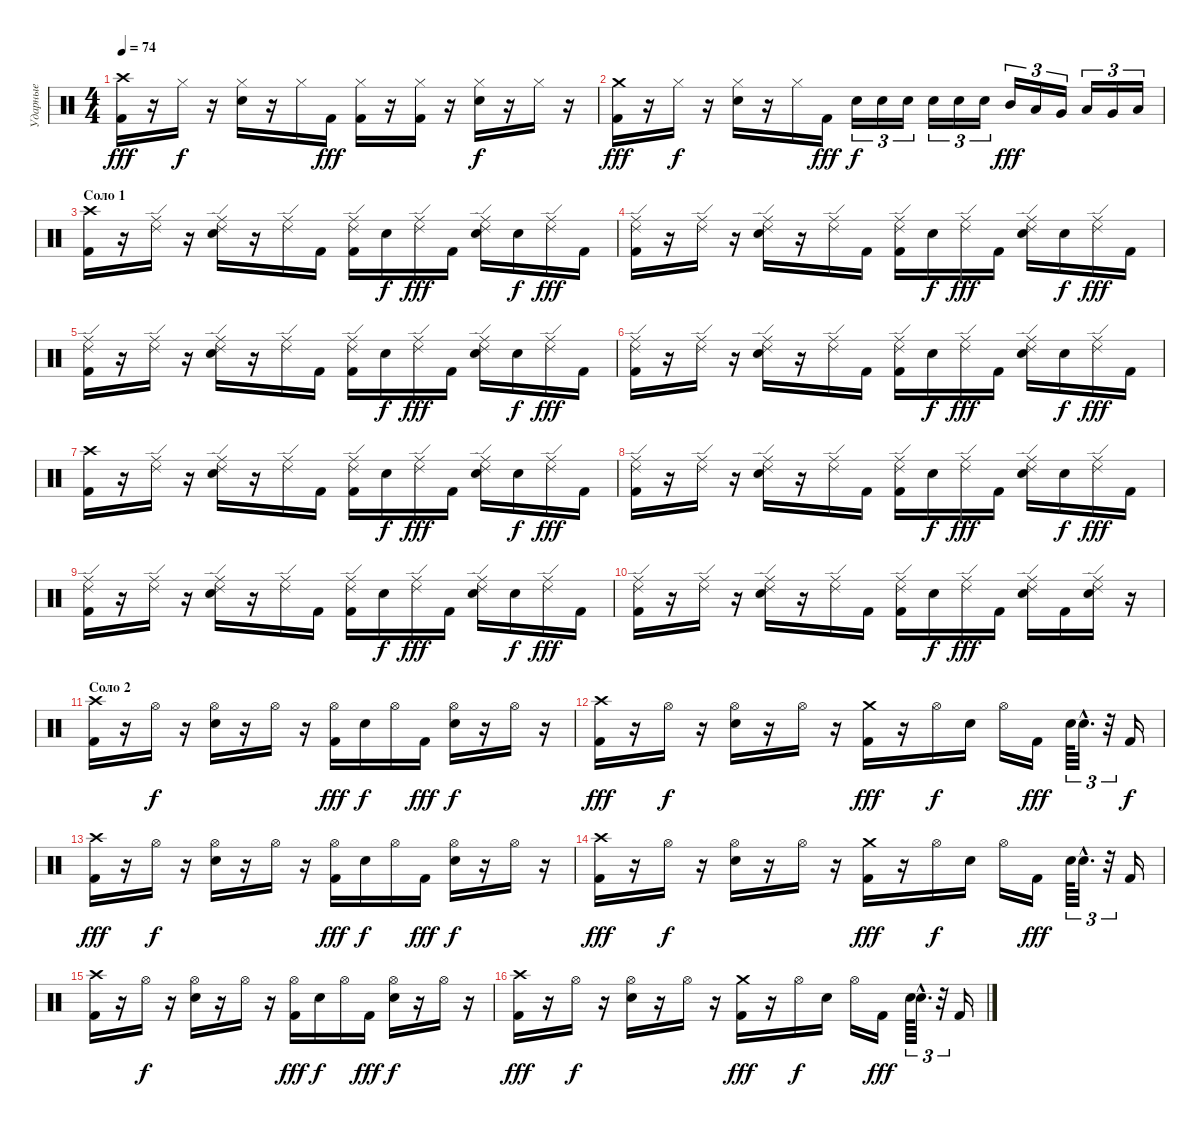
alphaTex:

\track ("Ударные" "Ударные") {instrument percussion}
\staff {score}
\articulation defaults
\ts (4 4)
\tempo 74
\clef neutral
\ks c
("Crash high (hit)" "Kick (hit) 2").16{dy fff} r.16 "Hi-Hat (closed)".16{dy f} r.16 ("Hi-Hat (closed)" "Electric Snare (hit)").16 r.16 "Hi-Hat (closed)".16 "Kick (hit) 2".16{dy fff} ("Hi-Hat (closed)" "Kick (hit) 2").16 r.16 ("Hi-Hat (closed)" "Kick (hit) 2").16 r.16 ("Hi-Hat (closed)" "Electric Snare (hit)").16{dy f} r.16 "Hi-Hat (closed)".16 r.16 |
("Crash medium (hit)" "Kick (hit) 2").16{dy fff} r.16 "Hi-Hat (closed)".16{dy f} r.16 ("Hi-Hat (closed)" "Electric Snare (hit)").16 r.16 "Hi-Hat (closed)".16 "Kick (hit) 2".16{dy fff} "Electric Snare (hit)".16{tu (3 2) dy f} "Electric Snare (hit)".16{tu (3 2)} "Electric Snare (hit)".16{tu (3 2)} "Electric Snare (hit)".16{tu (3 2)} "Electric Snare (hit)".16{tu (3 2)} "Electric Snare (hit)".16{tu (3 2)} "Mid Tom (hit)".16{tu (3 2) dy fff} "Low Tom (hit)".16{tu (3 2)} "Very Low Tom (hit)".16{tu (3 2)} "Low Tom (hit)".16{tu (3 2)} "Very Low Tom (hit)".16{tu (3 2)} "Low Floor Tom (hit)".16{tu (3 2)} |
\section ("" "Соло 1")
("Crash high (hit)" "Kick (hit) 2").16 r.16 ("Ride (edge) 2" "Ride (middle)").16 r.16 ("Ride (edge) 2" "Ride (middle)" "Electric Snare (hit)").16 r.16 ("Ride (edge) 2" "Ride (middle)").16 "Kick (hit) 2".16 ("Ride (edge) 2" "Ride (middle)" "Kick (hit) 2").16 "Electric Snare (hit)".16{dy f} ("Ride (edge) 2" "Ride (middle)").16{dy fff} "Kick (hit) 2".16 ("Ride (edge) 2" "Ride (middle)" "Electric Snare (hit)").16 "Electric Snare (hit)".16{dy f} ("Ride (edge) 2" "Ride (middle)").16{dy fff} "Kick (hit) 2".16 |
("Ride (edge) 2" "Ride (middle)" "Kick (hit) 2").16 r.16 ("Ride (edge) 2" "Ride (middle)").16 r.16 ("Ride (edge) 2" "Ride (middle)" "Electric Snare (hit)").16 r.16 ("Ride (edge) 2" "Ride (middle)").16 "Kick (hit) 2".16 ("Ride (edge) 2" "Ride (middle)" "Kick (hit) 2").16 "Electric Snare (hit)".16{dy f} ("Ride (edge) 2" "Ride (middle)").16{dy fff} "Kick (hit) 2".16 ("Ride (edge) 2" "Ride (middle)" "Electric Snare (hit)").16 "Electric Snare (hit)".16{dy f} ("Ride (edge) 2" "Ride (middle)").16{dy fff} "Kick (hit) 2".16 |
("Ride (edge) 2" "Ride (middle)" "Kick (hit) 2").16 r.16 ("Ride (edge) 2" "Ride (middle)").16 r.16 ("Ride (edge) 2" "Ride (middle)" "Electric Snare (hit)").16 r.16 ("Ride (edge) 2" "Ride (middle)").16 "Kick (hit) 2".16 ("Ride (edge) 2" "Ride (middle)" "Kick (hit) 2").16 "Electric Snare (hit)".16{dy f} ("Ride (edge) 2" "Ride (middle)").16{dy fff} "Kick (hit) 2".16 ("Ride (edge) 2" "Ride (middle)" "Electric Snare (hit)").16 "Electric Snare (hit)".16{dy f} ("Ride (edge) 2" "Ride (middle)").16{dy fff} "Kick (hit) 2".16 |
("Ride (edge) 2" "Ride (middle)" "Kick (hit) 2").16 r.16 ("Ride (edge) 2" "Ride (middle)").16 r.16 ("Ride (edge) 2" "Ride (middle)" "Electric Snare (hit)").16 r.16 ("Ride (edge) 2" "Ride (middle)").16 "Kick (hit) 2".16 ("Ride (edge) 2" "Ride (middle)" "Kick (hit) 2").16 "Electric Snare (hit)".16{dy f} ("Ride (edge) 2" "Ride (middle)").16{dy fff} "Kick (hit) 2".16 ("Ride (edge) 2" "Ride (middle)" "Electric Snare (hit)").16 "Electric Snare (hit)".16{dy f} ("Ride (edge) 2" "Ride (middle)").16{dy fff} "Kick (hit) 2".16 |
("Crash high (hit)" "Kick (hit) 2").16 r.16 ("Ride (edge) 2" "Ride (middle)").16 r.16 ("Ride (edge) 2" "Ride (middle)" "Electric Snare (hit)").16 r.16 ("Ride (edge) 2" "Ride (middle)").16 "Kick (hit) 2".16 ("Ride (edge) 2" "Ride (middle)" "Kick (hit) 2").16 "Electric Snare (hit)".16{dy f} ("Ride (edge) 2" "Ride (middle)").16{dy fff} "Kick (hit) 2".16 ("Ride (edge) 2" "Ride (middle)" "Electric Snare (hit)").16 "Electric Snare (hit)".16{dy f} ("Ride (edge) 2" "Ride (middle)").16{dy fff} "Kick (hit) 2".16 |
("Ride (edge) 2" "Ride (middle)" "Kick (hit) 2").16 r.16 ("Ride (edge) 2" "Ride (middle)").16 r.16 ("Ride (edge) 2" "Ride (middle)" "Electric Snare (hit)").16 r.16 ("Ride (edge) 2" "Ride (middle)").16 "Kick (hit) 2".16 ("Ride (edge) 2" "Ride (middle)" "Kick (hit) 2").16 "Electric Snare (hit)".16{dy f} ("Ride (edge) 2" "Ride (middle)").16{dy fff} "Kick (hit) 2".16 ("Ride (edge) 2" "Ride (middle)" "Electric Snare (hit)").16 "Electric Snare (hit)".16{dy f} ("Ride (edge) 2" "Ride (middle)").16{dy fff} "Kick (hit) 2".16 |
("Ride (edge) 2" "Ride (middle)" "Kick (hit) 2").16 r.16 ("Ride (edge) 2" "Ride (middle)").16 r.16 ("Ride (edge) 2" "Ride (middle)" "Electric Snare (hit)").16 r.16 ("Ride (edge) 2" "Ride (middle)").16 "Kick (hit) 2".16 ("Ride (edge) 2" "Ride (middle)" "Kick (hit) 2").16 "Electric Snare (hit)".16{dy f} ("Ride (edge) 2" "Ride (middle)").16{dy fff} "Kick (hit) 2".16 ("Ride (edge) 2" "Ride (middle)" "Electric Snare (hit)").16 "Electric Snare (hit)".16{dy f} ("Ride (edge) 2" "Ride (middle)").16{dy fff} "Kick (hit) 2".16 |
("Ride (edge) 2" "Ride (middle)" "Kick (hit) 2").16 r.16 ("Ride (edge) 2" "Ride (middle)").16 r.16 ("Ride (edge) 2" "Ride (middle)" "Electric Snare (hit)").16 r.16 ("Ride (edge) 2" "Ride (middle)").16 "Kick (hit) 2".16 ("Ride (edge) 2" "Ride (middle)" "Kick (hit) 2").16 "Electric Snare (hit)".16{dy f} ("Ride (edge) 2" "Ride (middle)").16{dy fff} "Kick (hit) 2".16 ("Ride (edge) 2" "Ride (middle)" "Electric Snare (hit)").16 "Kick (hit) 2".16 ("Ride (edge) 2" "Ride (middle)" "Electric Snare (hit)").16 r.16 |
\section ("" "Соло 2")
("Crash high (hit)" "Kick (hit) 2").16 r.16 "Hi-Hat (open)".16{dy f} r.16 ("Hi-Hat (open)" "Electric Snare (hit)").16 r.16 "Hi-Hat (open)".16 r.16 ("Hi-Hat (open)" "Kick (hit) 2").16{dy fff} "Electric Snare (hit)".16{dy f} "Hi-Hat (open)".16 "Kick (hit) 2".16{dy fff} ("Hi-Hat (open)" "Electric Snare (hit)").16{dy f} r.16 "Hi-Hat (open)".16 r.16 |
("Crash high (hit)" "Kick (hit) 2").16{dy fff} r.16 "Hi-Hat (open)".16{dy f} r.16 ("Hi-Hat (open)" "Electric Snare (hit)").16 r.16 "Hi-Hat (open)".16 r.16 ("Crash medium (hit)" "Kick (hit) 2").16{dy fff} r.16 "Hi-Hat (open)".16{dy f} "Electric Snare (hit)".16 "Hi-Hat (open)".16 "Kick (hit) 2".16{dy fff} "Electric Snare (hit)".64{tu (3 2)} "Electric Snare (hit)"{hac}.32{d tu (3 2)} r.32{tu (3 2)} "Kick (hit) 2".16{dy f} |
("Crash high (hit)" "Kick (hit) 2").16{dy fff} r.16 "Hi-Hat (open)".16{dy f} r.16 ("Hi-Hat (open)" "Electric Snare (hit)").16 r.16 "Hi-Hat (open)".16 r.16 ("Hi-Hat (open)" "Kick (hit) 2").16{dy fff} "Electric Snare (hit)".16{dy f} "Hi-Hat (open)".16 "Kick (hit) 2".16{dy fff} ("Hi-Hat (open)" "Electric Snare (hit)").16{dy f} r.16 "Hi-Hat (open)".16 r.16 |
("Crash high (hit)" "Kick (hit) 2").16{dy fff} r.16 "Hi-Hat (open)".16{dy f} r.16 ("Hi-Hat (open)" "Electric Snare (hit)").16 r.16 "Hi-Hat (open)".16 r.16 ("Crash medium (hit)" "Kick (hit) 2").16{dy fff} r.16 "Hi-Hat (open)".16{dy f} "Electric Snare (hit)".16 "Hi-Hat (open)".16 "Kick (hit) 2".16{dy fff} "Electric Snare (hit)".64{tu (3 2)} "Electric Snare (hit)"{hac}.32{d tu (3 2)} r.32{tu (3 2)} "Kick (hit) 2".16 |
("Crash high (hit)" "Kick (hit) 2").16 r.16 "Hi-Hat (open)".16{dy f} r.16 ("Hi-Hat (open)" "Electric Snare (hit)").16 r.16 "Hi-Hat (open)".16 r.16 ("Hi-Hat (open)" "Kick (hit) 2").16{dy fff} "Electric Snare (hit)".16{dy f} "Hi-Hat (open)".16 "Kick (hit) 2".16{dy fff} ("Hi-Hat (open)" "Electric Snare (hit)").16{dy f} r.16 "Hi-Hat (open)".16 r.16 |
("Crash high (hit)" "Kick (hit) 2").16{dy fff} r.16 "Hi-Hat (open)".16{dy f} r.16 ("Hi-Hat (open)" "Electric Snare (hit)").16 r.16 "Hi-Hat (open)".16 r.16 ("Crash medium (hit)" "Kick (hit) 2").16{dy fff} r.16 "Hi-Hat (open)".16{dy f} "Electric Snare (hit)".16 "Hi-Hat (open)".16 "Kick (hit) 2".16{dy fff} "Electric Snare (hit)".64{tu (3 2)} "Electric Snare (hit)"{hac}.32{d tu (3 2)} r.32{tu (3 2)} "Kick (hit) 2".16
